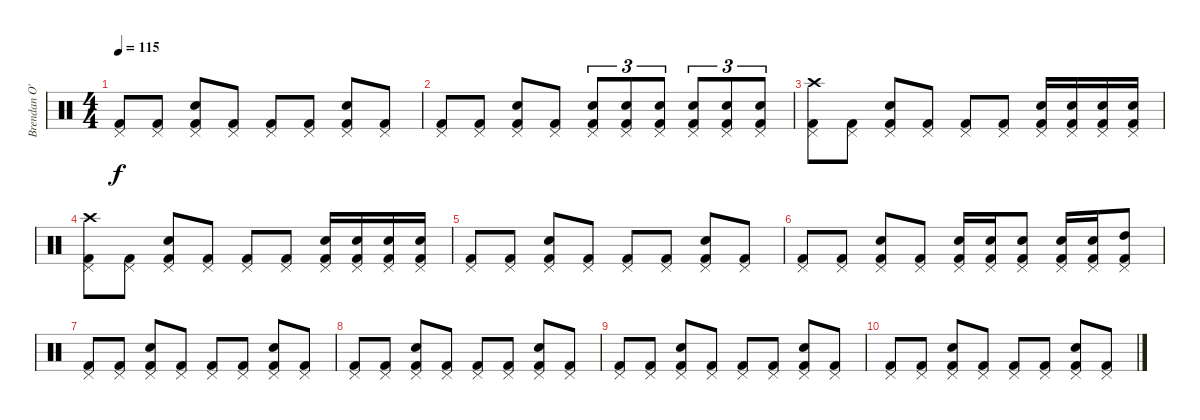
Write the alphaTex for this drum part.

\track ("Brendan O'Neill" "Brendan O'") {instrument percussion}
\staff {score}
\articulation defaults
\ts (4 4)
\tempo 115
\clef neutral
\ks c
("Pedal Hi-Hat (hit)" "Kick (hit) 2").8{dy f} ("Pedal Hi-Hat (hit)" "Kick (hit) 2").8 ("Pedal Hi-Hat (hit)" "Snare (hit) 2" "Kick (hit) 2").8 ("Pedal Hi-Hat (hit)" "Kick (hit) 2").8 ("Pedal Hi-Hat (hit)" "Kick (hit) 2").8 ("Pedal Hi-Hat (hit)" "Kick (hit) 2").8 ("Pedal Hi-Hat (hit)" "Snare (hit) 2" "Kick (hit) 2").8 ("Pedal Hi-Hat (hit)" "Kick (hit) 2").8 |
("Pedal Hi-Hat (hit)" "Kick (hit) 2").8 ("Pedal Hi-Hat (hit)" "Kick (hit) 2").8 ("Pedal Hi-Hat (hit)" "Snare (hit) 2" "Kick (hit) 2").8 ("Pedal Hi-Hat (hit)" "Kick (hit) 2").8 ("Pedal Hi-Hat (hit)" "Electric Snare (hit)" "Kick (hit) 2").8{tu (3 2)} ("Pedal Hi-Hat (hit)" "Electric Snare (hit)" "Kick (hit) 2").8{tu (3 2)} ("Pedal Hi-Hat (hit)" "Electric Snare (hit)" "Kick (hit) 2").8{tu (3 2)} ("Pedal Hi-Hat (hit)" "Snare (hit) 2" "Kick (hit) 2").8{tu (3 2)} ("Pedal Hi-Hat (hit)" "Snare (hit) 2" "Kick (hit) 2").8{tu (3 2)} ("Pedal Hi-Hat (hit)" "Snare (hit) 2" "Kick (hit) 2").8{tu (3 2)} |
("Crash high (hit)" "Pedal Hi-Hat (hit)" "Kick (hit) 2").8 ("Pedal Hi-Hat (hit)" "Kick (hit) 2").8 ("Pedal Hi-Hat (hit)" "Snare (hit) 2" "Kick (hit) 2").8 ("Pedal Hi-Hat (hit)" "Kick (hit) 2").8 ("Pedal Hi-Hat (hit)" "Kick (hit) 2").8 ("Pedal Hi-Hat (hit)" "Kick (hit) 2").8 ("Pedal Hi-Hat (hit)" "Snare (hit) 2" "Kick (hit) 2").16 ("Pedal Hi-Hat (hit)" "Snare (hit) 2" "Kick (hit) 2").16 ("Pedal Hi-Hat (hit)" "Snare (hit) 2" "Kick (hit) 2").16 ("Pedal Hi-Hat (hit)" "Snare (hit) 2" "Kick (hit) 2").16 |
("Crash high (hit)" "Pedal Hi-Hat (hit)" "Kick (hit) 2").8 ("Pedal Hi-Hat (hit)" "Kick (hit) 2").8 ("Pedal Hi-Hat (hit)" "Snare (hit) 2" "Kick (hit) 2").8 ("Pedal Hi-Hat (hit)" "Kick (hit) 2").8 ("Pedal Hi-Hat (hit)" "Kick (hit) 2").8 ("Pedal Hi-Hat (hit)" "Kick (hit) 2").8 ("Pedal Hi-Hat (hit)" "Snare (hit) 2" "Kick (hit) 2").16 ("Pedal Hi-Hat (hit)" "Snare (hit) 2" "Kick (hit) 2").16 ("Pedal Hi-Hat (hit)" "Snare (hit) 2" "Kick (hit) 2").16 ("Pedal Hi-Hat (hit)" "Snare (hit) 2" "Kick (hit) 2").16 |
("Pedal Hi-Hat (hit)" "Kick (hit) 2").8 ("Pedal Hi-Hat (hit)" "Kick (hit) 2").8 ("Pedal Hi-Hat (hit)" "Snare (hit) 2" "Kick (hit) 2").8 ("Pedal Hi-Hat (hit)" "Kick (hit) 2").8 ("Pedal Hi-Hat (hit)" "Kick (hit) 2").8 ("Pedal Hi-Hat (hit)" "Kick (hit) 2").8 ("Pedal Hi-Hat (hit)" "Snare (hit) 2" "Kick (hit) 2").8 ("Pedal Hi-Hat (hit)" "Kick (hit) 2").8 |
("Pedal Hi-Hat (hit)" "Kick (hit) 2").8 ("Pedal Hi-Hat (hit)" "Kick (hit) 2").8 ("Pedal Hi-Hat (hit)" "Snare (hit) 2" "Kick (hit) 2").8 ("Pedal Hi-Hat (hit)" "Kick (hit) 2").8 ("Pedal Hi-Hat (hit)" "Electric Snare (hit)" "Kick (hit) 2").16 ("Pedal Hi-Hat (hit)" "Electric Snare (hit)" "Kick (hit) 2").16 ("Pedal Hi-Hat (hit)" "Snare (hit) 2" "Kick (hit) 2").8 ("Pedal Hi-Hat (hit)" "Electric Snare (hit)" "Kick (hit) 2").16 ("Pedal Hi-Hat (hit)" "Electric Snare (hit)" "Kick (hit) 2").16 ("Pedal Hi-Hat (hit)" "High Tom (hit)" "Kick (hit) 2").8 |
("Pedal Hi-Hat (hit)" "Kick (hit) 2").8 ("Pedal Hi-Hat (hit)" "Kick (hit) 2").8 ("Pedal Hi-Hat (hit)" "Snare (hit) 2" "Kick (hit) 2").8 ("Pedal Hi-Hat (hit)" "Kick (hit) 2").8 ("Pedal Hi-Hat (hit)" "Kick (hit) 2").8 ("Pedal Hi-Hat (hit)" "Kick (hit) 2").8 ("Pedal Hi-Hat (hit)" "Snare (hit) 2" "Kick (hit) 2").8 ("Pedal Hi-Hat (hit)" "Kick (hit) 2").8 |
("Pedal Hi-Hat (hit)" "Kick (hit) 2").8 ("Pedal Hi-Hat (hit)" "Kick (hit) 2").8 ("Pedal Hi-Hat (hit)" "Snare (hit) 2" "Kick (hit) 2").8 ("Pedal Hi-Hat (hit)" "Kick (hit) 2").8 ("Pedal Hi-Hat (hit)" "Kick (hit) 2").8 ("Pedal Hi-Hat (hit)" "Kick (hit) 2").8 ("Pedal Hi-Hat (hit)" "Snare (hit) 2" "Kick (hit) 2").8 ("Pedal Hi-Hat (hit)" "Kick (hit) 2").8 |
("Pedal Hi-Hat (hit)" "Kick (hit) 2").8 ("Pedal Hi-Hat (hit)" "Kick (hit) 2").8 ("Pedal Hi-Hat (hit)" "Snare (hit) 2" "Kick (hit) 2").8 ("Pedal Hi-Hat (hit)" "Kick (hit) 2").8 ("Pedal Hi-Hat (hit)" "Kick (hit) 2").8 ("Pedal Hi-Hat (hit)" "Kick (hit) 2").8 ("Pedal Hi-Hat (hit)" "Snare (hit) 2" "Kick (hit) 2").8 ("Pedal Hi-Hat (hit)" "Kick (hit) 2").8 |
("Pedal Hi-Hat (hit)" "Kick (hit) 2").8 ("Pedal Hi-Hat (hit)" "Kick (hit) 2").8 ("Pedal Hi-Hat (hit)" "Snare (hit) 2" "Kick (hit) 2").8 ("Pedal Hi-Hat (hit)" "Kick (hit) 2").8 ("Pedal Hi-Hat (hit)" "Kick (hit) 2").8 ("Pedal Hi-Hat (hit)" "Kick (hit) 2").8 ("Pedal Hi-Hat (hit)" "Snare (hit) 2" "Kick (hit) 2").8 ("Pedal Hi-Hat (hit)" "Kick (hit) 2").8
